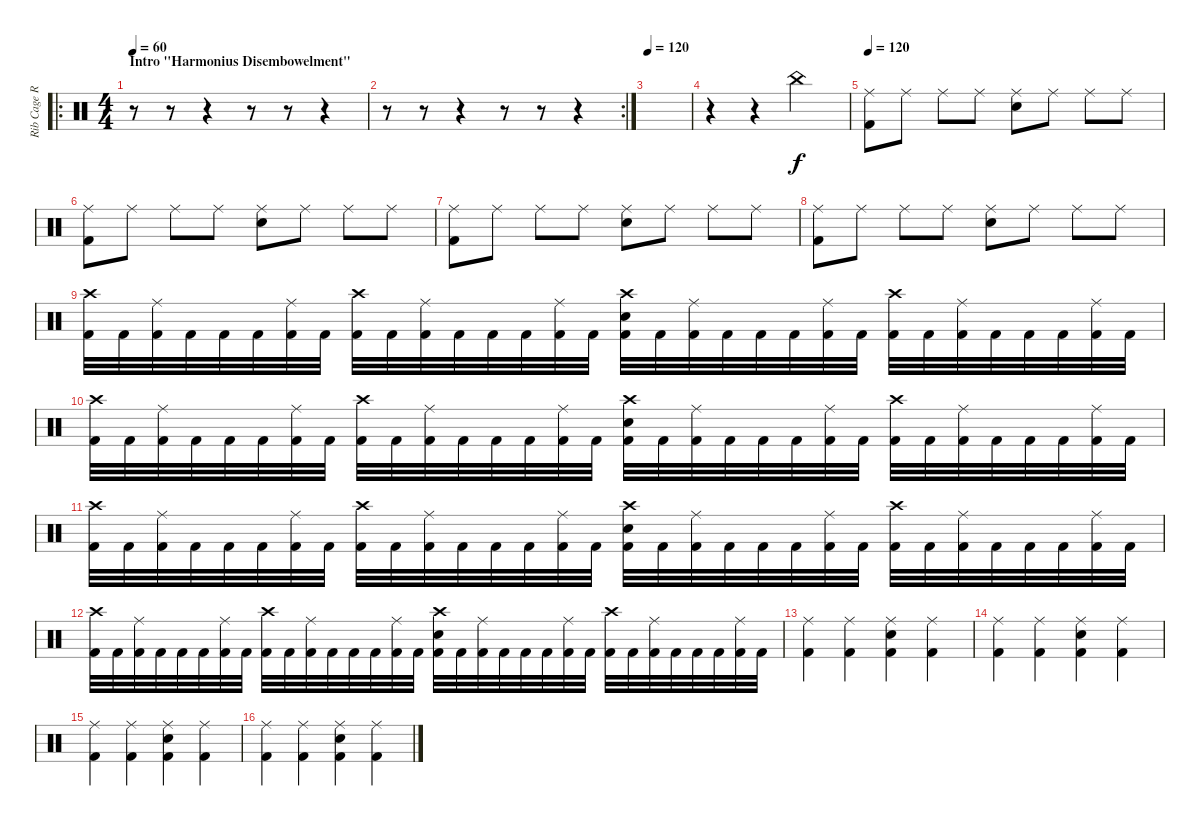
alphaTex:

\track ("Rib Cage Rupturing God Stomping Cremator" "Rib Cage R") {instrument percussion}
\staff {score}
\articulation defaults
\ro
\ts (4 4)
\section ("" "Intro \"Harmonius Disembowelment\"")
\tempo 60
\clef neutral
\ks c
r.8{dy f} r.8 r.4 r.8 r.8 r.4 |
\rc 2
r.8 r.8 r.4 r.8 r.8 r.4 |
\tempo 120
|
r.4 r.4 "China (hit)".2 |
\tempo 120
("Ride (middle)" "Kick (hit) 2").8{volume 16} "Ride (middle)".8 "Ride (middle)".8 "Ride (middle)".8 ("Ride (middle)" "Electric Snare (hit)").8 "Ride (middle)".8 "Ride (middle)".8 "Ride (middle)".8 |
("Ride (middle)" "Kick (hit) 2").8 "Ride (middle)".8 "Ride (middle)".8 "Ride (middle)".8 ("Ride (middle)" "Electric Snare (hit)").8 "Ride (middle)".8 "Ride (middle)".8 "Ride (middle)".8 |
("Ride (middle)" "Kick (hit) 2").8 "Ride (middle)".8 "Ride (middle)".8 "Ride (middle)".8 ("Ride (middle)" "Electric Snare (hit)").8 "Ride (middle)".8 "Ride (middle)".8 "Ride (middle)".8 |
("Ride (middle)" "Kick (hit) 2").8 "Ride (middle)".8 "Ride (middle)".8 "Ride (middle)".8 ("Ride (middle)" "Electric Snare (hit)").8 "Ride (middle)".8 "Ride (middle)".8 "Ride (middle)".8 |
("Crash high (hit)" "Kick (hit) 2").32 "Kick (hit) 2".32 ("Ride (middle)" "Kick (hit) 2").32 "Kick (hit) 2".32 "Kick (hit) 2".32 "Kick (hit) 2".32 ("Ride (middle)" "Kick (hit) 2").32 "Kick (hit) 2".32 ("Crash high (hit)" "Kick (hit) 2").32 "Kick (hit) 2".32 ("Ride (middle)" "Kick (hit) 2").32 "Kick (hit) 2".32 "Kick (hit) 2".32 "Kick (hit) 2".32 ("Ride (middle)" "Kick (hit) 2").32 "Kick (hit) 2".32 ("Crash high (hit)" "Electric Snare (hit)" "Kick (hit) 2").32 "Kick (hit) 2".32 ("Ride (middle)" "Kick (hit) 2").32 "Kick (hit) 2".32 "Kick (hit) 2".32 "Kick (hit) 2".32 ("Ride (middle)" "Kick (hit) 2").32 "Kick (hit) 2".32 ("Crash high (hit)" "Kick (hit) 2").32 "Kick (hit) 2".32 ("Ride (middle)" "Kick (hit) 2").32 "Kick (hit) 2".32 "Kick (hit) 2".32 "Kick (hit) 2".32 ("Ride (middle)" "Kick (hit) 2").32 "Kick (hit) 2".32 |
("Crash high (hit)" "Kick (hit) 2").32 "Kick (hit) 2".32 ("Ride (middle)" "Kick (hit) 2").32 "Kick (hit) 2".32 "Kick (hit) 2".32 "Kick (hit) 2".32 ("Ride (middle)" "Kick (hit) 2").32 "Kick (hit) 2".32 ("Crash high (hit)" "Kick (hit) 2").32 "Kick (hit) 2".32 ("Ride (middle)" "Kick (hit) 2").32 "Kick (hit) 2".32 "Kick (hit) 2".32 "Kick (hit) 2".32 ("Ride (middle)" "Kick (hit) 2").32 "Kick (hit) 2".32 ("Crash high (hit)" "Electric Snare (hit)" "Kick (hit) 2").32 "Kick (hit) 2".32 ("Ride (middle)" "Kick (hit) 2").32 "Kick (hit) 2".32 "Kick (hit) 2".32 "Kick (hit) 2".32 ("Ride (middle)" "Kick (hit) 2").32 "Kick (hit) 2".32 ("Crash high (hit)" "Kick (hit) 2").32 "Kick (hit) 2".32 ("Ride (middle)" "Kick (hit) 2").32 "Kick (hit) 2".32 "Kick (hit) 2".32 "Kick (hit) 2".32 ("Ride (middle)" "Kick (hit) 2").32 "Kick (hit) 2".32 |
("Crash high (hit)" "Kick (hit) 2").32 "Kick (hit) 2".32 ("Ride (middle)" "Kick (hit) 2").32 "Kick (hit) 2".32 "Kick (hit) 2".32 "Kick (hit) 2".32 ("Ride (middle)" "Kick (hit) 2").32 "Kick (hit) 2".32 ("Crash high (hit)" "Kick (hit) 2").32 "Kick (hit) 2".32 ("Ride (middle)" "Kick (hit) 2").32 "Kick (hit) 2".32 "Kick (hit) 2".32 "Kick (hit) 2".32 ("Ride (middle)" "Kick (hit) 2").32 "Kick (hit) 2".32 ("Crash high (hit)" "Electric Snare (hit)" "Kick (hit) 2").32 "Kick (hit) 2".32 ("Ride (middle)" "Kick (hit) 2").32 "Kick (hit) 2".32 "Kick (hit) 2".32 "Kick (hit) 2".32 ("Ride (middle)" "Kick (hit) 2").32 "Kick (hit) 2".32 ("Crash high (hit)" "Kick (hit) 2").32 "Kick (hit) 2".32 ("Ride (middle)" "Kick (hit) 2").32 "Kick (hit) 2".32 "Kick (hit) 2".32 "Kick (hit) 2".32 ("Ride (middle)" "Kick (hit) 2").32 "Kick (hit) 2".32 |
("Crash high (hit)" "Kick (hit) 2").32 "Kick (hit) 2".32 ("Ride (middle)" "Kick (hit) 2").32 "Kick (hit) 2".32 "Kick (hit) 2".32 "Kick (hit) 2".32 ("Ride (middle)" "Kick (hit) 2").32 "Kick (hit) 2".32 ("Crash high (hit)" "Kick (hit) 2").32 "Kick (hit) 2".32 ("Ride (middle)" "Kick (hit) 2").32 "Kick (hit) 2".32 "Kick (hit) 2".32 "Kick (hit) 2".32 ("Ride (middle)" "Kick (hit) 2").32 "Kick (hit) 2".32 ("Crash high (hit)" "Electric Snare (hit)" "Kick (hit) 2").32 "Kick (hit) 2".32 ("Ride (middle)" "Kick (hit) 2").32 "Kick (hit) 2".32 "Kick (hit) 2".32 "Kick (hit) 2".32 ("Ride (middle)" "Kick (hit) 2").32 "Kick (hit) 2".32 ("Crash high (hit)" "Kick (hit) 2").32 "Kick (hit) 2".32 ("Ride (middle)" "Kick (hit) 2").32 "Kick (hit) 2".32 "Kick (hit) 2".32 "Kick (hit) 2".32 ("Ride (middle)" "Kick (hit) 2").32 "Kick (hit) 2".32 |
("Ride (middle)" "Kick (hit) 2").4 ("Ride (middle)" "Kick (hit) 2").4 ("Ride (middle)" "Electric Snare (hit)" "Kick (hit) 2").4 ("Ride (middle)" "Kick (hit) 2").4 |
("Ride (middle)" "Kick (hit) 2").4 ("Ride (middle)" "Kick (hit) 2").4 ("Ride (middle)" "Electric Snare (hit)" "Kick (hit) 2").4 ("Ride (middle)" "Kick (hit) 2").4 |
("Ride (middle)" "Kick (hit) 2").4 ("Ride (middle)" "Kick (hit) 2").4 ("Ride (middle)" "Electric Snare (hit)" "Kick (hit) 2").4 ("Ride (middle)" "Kick (hit) 2").4 |
("Ride (middle)" "Kick (hit) 2").4 ("Ride (middle)" "Kick (hit) 2").4 ("Ride (middle)" "Electric Snare (hit)" "Kick (hit) 2").4 ("Ride (middle)" "Kick (hit) 2").4
